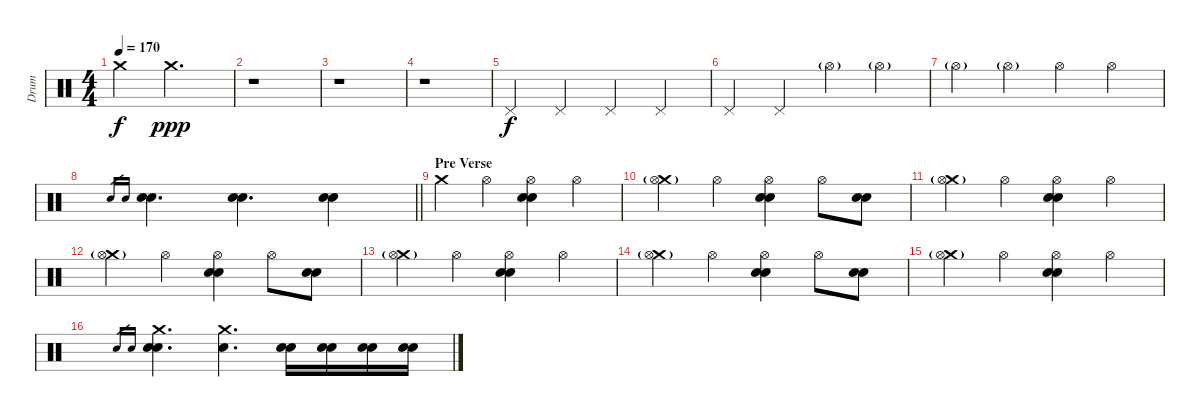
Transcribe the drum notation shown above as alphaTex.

\track ("Drum" "Drum") {instrument percussion}
\staff
\articulation defaults
\ts (4 4)
\tempo 170
\clef neutral
\ks c "Crash medium (hit)".4{dy f} "Crash medium (hit)".2{d dy ppp}
|
r.1 |
r.1 |
r.1 |
"Pedal Hi-Hat (hit)".4{dy f} "Pedal Hi-Hat (hit)".4 "Pedal Hi-Hat (hit)".4 "Pedal Hi-Hat (hit)".4 |
"Pedal Hi-Hat (hit)".4 "Pedal Hi-Hat (hit)".4 "Hi-Hat (open)"{g}.4 "Hi-Hat (open)"{g}.4 |
"Hi-Hat (open)"{g}.4 "Hi-Hat (open)"{g}.4 "Hi-Hat (open)".4 "Hi-Hat (open)".4 |
\barLineRight lightlight "Electric Snare (hit)".16{gr} "Snare (hit) 2".16{gr}
("Electric Snare (hit)" "Snare (hit) 2").4{d} ("Electric Snare (hit)" "Snare (hit) 2").4{d} ("Electric Snare (hit)" "Snare (hit) 2").4 |
\section ("" "Pre Verse")
"Crash medium (hit)".4 "Hi-Hat (open)".4 ("Hi-Hat (open)" "Electric Snare (hit)" "Snare (hit) 2").4 "Hi-Hat (open)".4 |
("Crash medium (hit)"{g} "Hi-Hat (open)").4 "Hi-Hat (open)".4 ("Hi-Hat (open)" "Electric Snare (hit)" "Snare (hit) 2").4 "Hi-Hat (open)".8 ("Electric Snare (hit)" "Snare (hit) 2").8 |
("Crash medium (hit)"{g} "Hi-Hat (open)").4 "Hi-Hat (open)".4 ("Hi-Hat (open)" "Electric Snare (hit)" "Snare (hit) 2").4 "Hi-Hat (open)".4 |
("Crash medium (hit)"{g} "Hi-Hat (open)").4 "Hi-Hat (open)".4 ("Hi-Hat (open)" "Electric Snare (hit)" "Snare (hit) 2").4 "Hi-Hat (open)".8 ("Electric Snare (hit)" "Snare (hit) 2").8 |
("Crash medium (hit)"{g} "Hi-Hat (open)").4 "Hi-Hat (open)".4 ("Hi-Hat (open)" "Electric Snare (hit)" "Snare (hit) 2").4 "Hi-Hat (open)".4 |
("Crash medium (hit)"{g} "Hi-Hat (open)").4 "Hi-Hat (open)".4 ("Hi-Hat (open)" "Electric Snare (hit)" "Snare (hit) 2").4 "Hi-Hat (open)".8 ("Electric Snare (hit)" "Snare (hit) 2").8 |
("Crash medium (hit)"{g} "Hi-Hat (open)").4 "Hi-Hat (open)".4 ("Hi-Hat (open)" "Electric Snare (hit)" "Snare (hit) 2").4 "Hi-Hat (open)".4 |
"Electric Snare (hit)".16{gr} "Snare (hit) 2".16{gr} ("Crash medium (hit)" "Electric Snare (hit)" "Snare (hit) 2").4{d} ("Crash medium (hit)" "Electric Snare (hit)").4{d} ("Electric Snare (hit)" "Snare (hit) 2").16 ("Electric Snare (hit)" "Snare (hit) 2").16 ("Electric Snare (hit)" "Snare (hit) 2").16 ("Electric Snare (hit)" "Snare (hit) 2").16
